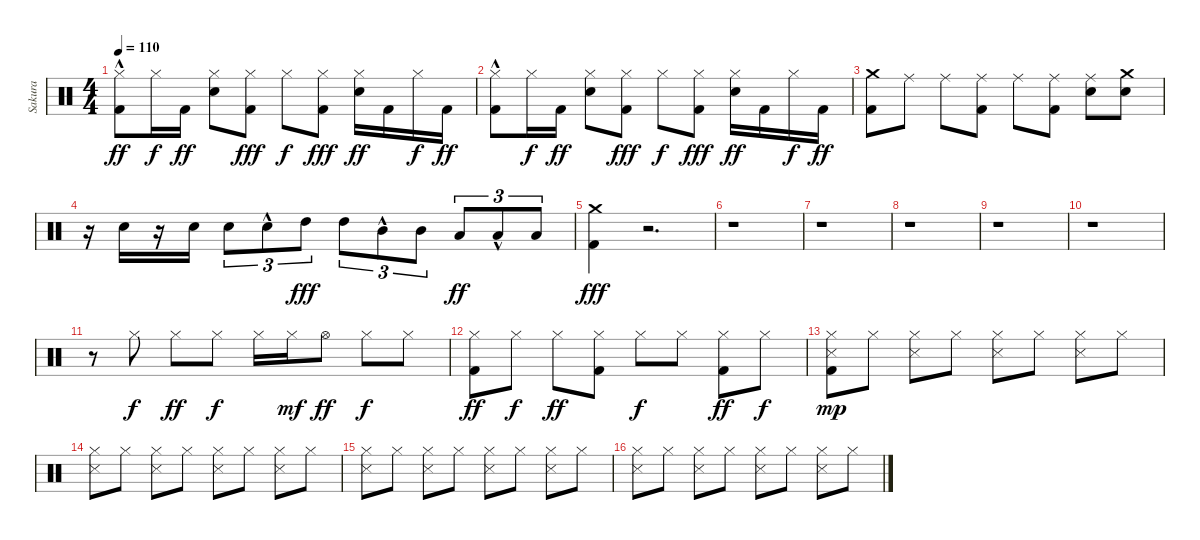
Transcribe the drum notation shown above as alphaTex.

\track ("Sakura" "Sakura") {instrument percussion}
\staff {score}
\articulation defaults
\ts (4 4)
\tempo 110
\clef neutral
\ks c
("Kick (hit) 2"{hac} "Hi-Hat (closed)").8{dy ff} "Hi-Hat (closed)".16{dy f} "Kick (hit) 2".16{dy ff} ("Snare (hit) 2" "Hi-Hat (closed)").8 ("Kick (hit) 2" "Hi-Hat (closed)").8{dy fff} "Hi-Hat (closed)".8{dy f} ("Kick (hit) 2" "Hi-Hat (closed)").8{dy fff} ("Snare (hit) 2" "Hi-Hat (closed)").16{dy ff} "Kick (hit) 2".16 "Hi-Hat (closed)".16{dy f} "Kick (hit) 2".16{dy ff} |
("Kick (hit) 2"{hac} "Hi-Hat (closed)").8 "Hi-Hat (closed)".16{dy f} "Kick (hit) 2".16{dy ff} ("Snare (hit) 2" "Hi-Hat (closed)").8 ("Kick (hit) 2" "Hi-Hat (closed)").8{dy fff} "Hi-Hat (closed)".8{dy f} ("Kick (hit) 2" "Hi-Hat (closed)").8{dy fff} ("Snare (hit) 2" "Hi-Hat (closed)").16{dy ff} "Kick (hit) 2".16 "Hi-Hat (closed)".16{dy f} "Kick (hit) 2".16{dy ff} |
("Kick (hit) 2" "Crash medium (hit)").8 "Ride (middle)".8 "Ride (middle)".8 ("Kick (hit) 2" "Ride (middle)").8 "Ride (middle)".8 ("Kick (hit) 2" "Ride (middle)").8 ("Snare (hit) 2" "Ride (middle)").8 ("Snare (hit) 2" "Crash medium (hit)").8 |
r.16 "Snare (hit) 2".16 r.16 "Snare (hit) 2".16 "Snare (hit) 2".8{tu (3 2)} "Snare (hit) 2"{hac}.8{tu (3 2)} "High Tom (hit)".8{tu (3 2) dy fff} "High Tom (hit)".8{tu (3 2)} "Mid Tom (hit)"{hac}.8{tu (3 2)} "Mid Tom (hit)".8{tu (3 2)} "Low Tom (hit)".8{tu (3 2) dy ff} "Low Tom (hit)"{hac}.8{tu (3 2)} "Low Tom (hit)".8{tu (3 2)} |
("Crash medium (hit)" "Kick (hit) 2").4{dy fff} r.2{d} |
r.1 |
r.1 |
r.1 |
r.1 |
r.1 |
r.8 "Hi-Hat (closed)".8{dy f} "Hi-Hat (closed)".8{dy ff} "Hi-Hat (closed)".8{dy f} "Hi-Hat (closed)".16 "Hi-Hat (closed)".16{dy mf} "Hi-Hat (open)".8{dy ff} "Hi-Hat (closed)".8{dy f} "Hi-Hat (closed)".8 |
("Kick (hit) 2" "Hi-Hat (closed)").8{dy ff} "Hi-Hat (closed)".8{dy f} "Hi-Hat (closed)".8{dy ff} ("Kick (hit) 2" "Hi-Hat (closed)").8 "Hi-Hat (closed)".8{dy f} "Hi-Hat (closed)".8 ("Kick (hit) 2" "Hi-Hat (closed)").8{dy ff} "Hi-Hat (closed)".8{dy f} |
("Hi-Hat (closed)" "Snare (side stick) 3" "Kick (hit) 2").8{dy mp} "Hi-Hat (closed)".8 ("Hi-Hat (closed)" "Snare (side stick) 3").8 "Hi-Hat (closed)".8 ("Hi-Hat (closed)" "Snare (side stick) 3").8 "Hi-Hat (closed)".8 ("Hi-Hat (closed)" "Snare (side stick) 3").8 "Hi-Hat (closed)".8 |
("Hi-Hat (closed)" "Snare (side stick) 3").8 "Hi-Hat (closed)".8 ("Hi-Hat (closed)" "Snare (side stick) 3").8 "Hi-Hat (closed)".8 ("Hi-Hat (closed)" "Snare (side stick) 3").8 "Hi-Hat (closed)".8 ("Hi-Hat (closed)" "Snare (side stick) 3").8 "Hi-Hat (closed)".8 |
("Hi-Hat (closed)" "Snare (side stick) 3").8 "Hi-Hat (closed)".8 ("Hi-Hat (closed)" "Snare (side stick) 3").8 "Hi-Hat (closed)".8 ("Hi-Hat (closed)" "Snare (side stick) 3").8 "Hi-Hat (closed)".8 ("Hi-Hat (closed)" "Snare (side stick) 3").8 "Hi-Hat (closed)".8 |
("Hi-Hat (closed)" "Snare (side stick) 3").8 "Hi-Hat (closed)".8 ("Hi-Hat (closed)" "Snare (side stick) 3").8 "Hi-Hat (closed)".8 ("Hi-Hat (closed)" "Snare (side stick) 3").8 "Hi-Hat (closed)".8 ("Hi-Hat (closed)" "Snare (side stick) 3").8 "Hi-Hat (closed)".8
